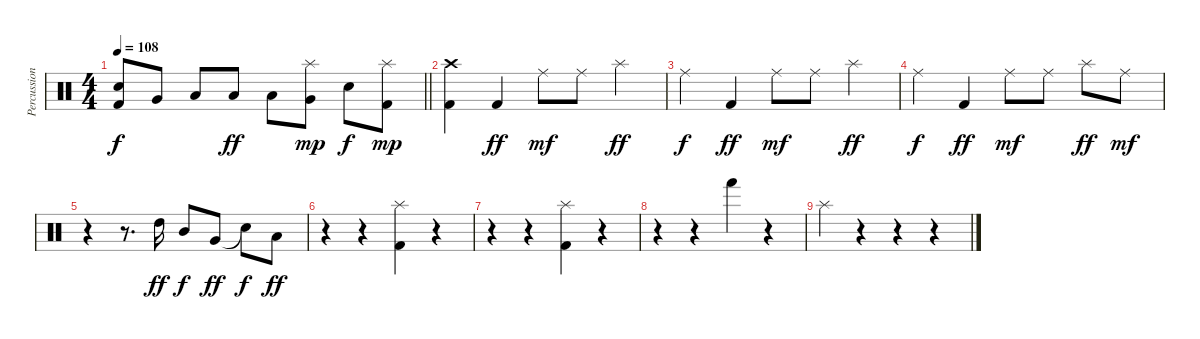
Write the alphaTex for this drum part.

\track ("Percussions" "Percussion") {instrument percussion}
\staff {score}
\articulation defaults
\ts (4 4)
\tempo 108
\clef neutral
\barLineRight lightlight
\ks c
("Electric Snare (hit)" "Kick (hit) 2").8{dy f} "Very Low Tom (hit)".8 "Low Tom (hit)".8 "Low Tom (hit)".8{dy ff} "Low Tom (hit)".8 ("Very Low Tom (hit)" "Splash (hit)").8{dy mp} "Electric Snare (hit)".8{dy f} ("Kick (hit) 2" "Splash (hit)").8{dy mp} |
("Crash high (hit)" "Kick (hit) 2").4 "Kick (hit) 2".4{dy ff} "Ride (middle)".8{dy mf} "Ride (middle)".8 "Splash (hit)".4{dy ff} |
"Ride (middle)".4{dy f} "Kick (hit) 2".4{dy ff} "Ride (middle)".8{dy mf} "Ride (middle)".8 "Splash (hit)".4{dy ff} |
"Ride (middle)".4{dy f} "Kick (hit) 2".4{dy ff} "Ride (middle)".8{dy mf} "Ride (middle)".8 "Splash (hit)".8{dy ff} "Ride (middle)".8{dy mf} |
r.4 r.8{d} "High Tom (hit)".16{dy ff} "Mid Tom (hit)".8{dy f} "Very Low Tom (hit)".8{dy ff} "Snare (hit)"{t}.8{dy f} "Low Floor Tom (hit)".8{dy ff} |
r.4 r.4 ("Kick (hit) 2" "Splash (hit)").4 r.4 |
r.4 r.4 ("Kick (hit) 2" "Splash (hit)").4 r.4 |
r.4 r.4 "Hand (hit)".4 r.4 |
"Splash (hit)".4 r.4 r.4 r.4
